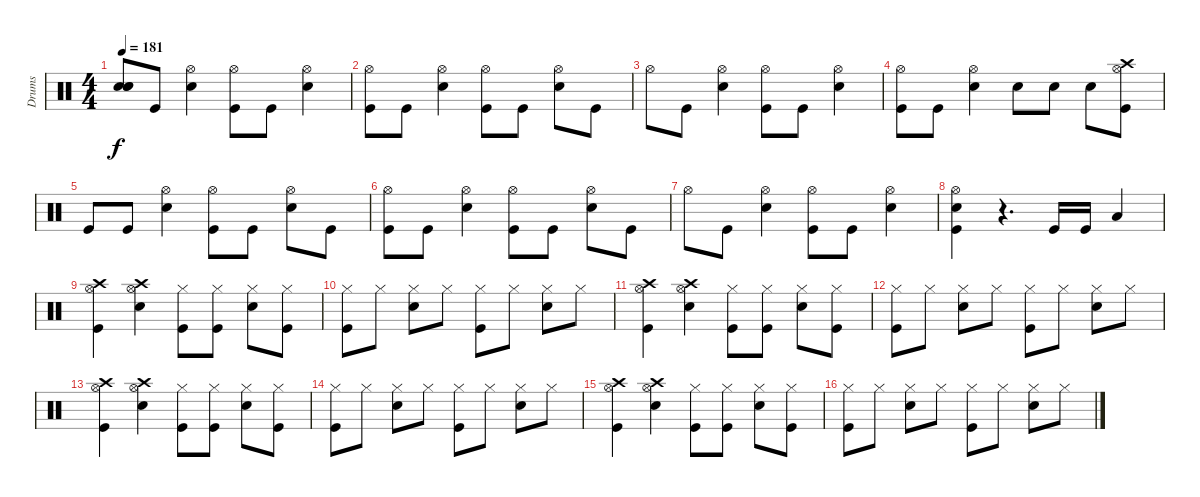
\track ("Drums" "Drums") {instrument percussion}
\staff {score}
\articulation defaults
\ts (4 4)
\tempo 181
\clef neutral
\ks c
("Snare (hit)"{t} "Snare (hit)"{t} "Snare (hit)"{t}).8{dy f} "Kick (hit)".8 ("Hi-Hat (open)" "Snare (hit) 2").4 ("Hi-Hat (open)" "Kick (hit)").8 "Kick (hit)".8 ("Hi-Hat (open)" "Snare (hit) 2").4 |
("Hi-Hat (open)" "Kick (hit)").8 "Kick (hit)".8 ("Hi-Hat (open)" "Snare (hit) 2").4 ("Hi-Hat (open)" "Kick (hit)").8 "Kick (hit)".8 ("Hi-Hat (open)" "Snare (hit) 2").8 "Kick (hit)".8 |
"Hi-Hat (open)".8 "Kick (hit)".8 ("Hi-Hat (open)" "Snare (hit) 2").4 ("Hi-Hat (open)" "Kick (hit)").8 "Kick (hit)".8 ("Hi-Hat (open)" "Snare (hit) 2").4 |
("Hi-Hat (open)" "Kick (hit)").8 "Kick (hit)".8 ("Hi-Hat (open)" "Snare (hit) 2").4 "Snare (hit) 2".8 "Snare (hit) 2".8 "Snare (hit) 2".8 ("Crash high (hit)" "Hi-Hat (open)" "Kick (hit)").8 |
"Kick (hit)".8 "Kick (hit)".8 ("Hi-Hat (open)" "Snare (hit) 2").4 ("Hi-Hat (open)" "Kick (hit)").8 "Kick (hit)".8 ("Hi-Hat (open)" "Snare (hit) 2").8 "Kick (hit)".8 |
("Hi-Hat (open)" "Kick (hit)").8 "Kick (hit)".8 ("Hi-Hat (open)" "Snare (hit) 2").4 ("Hi-Hat (open)" "Kick (hit)").8 "Kick (hit)".8 ("Hi-Hat (open)" "Snare (hit) 2").8 "Kick (hit)".8 |
"Hi-Hat (open)".8 "Kick (hit)".8 ("Hi-Hat (open)" "Snare (hit) 2").4 ("Hi-Hat (open)" "Kick (hit)").8 "Kick (hit)".8 ("Hi-Hat (open)" "Snare (hit) 2").4 |
("Hi-Hat (open)" "Snare (hit) 2" "Kick (hit)").4 r.4{d} "Kick (hit)".16 "Kick (hit)".16 "Low Tom (hit)".4 |
("Crash high (hit)" "Hi-Hat (open)" "Kick (hit)").4 ("Crash high (hit)" "Hi-Hat (open)" "Snare (hit) 2").4 ("Hi-Hat (closed)" "Kick (hit)").8 ("Hi-Hat (closed)" "Kick (hit)").8 ("Hi-Hat (closed)" "Snare (hit) 2").8 ("Hi-Hat (closed)" "Kick (hit)").8 |
("Hi-Hat (closed)" "Kick (hit)").8 "Hi-Hat (closed)".8 ("Hi-Hat (closed)" "Snare (hit) 2").8 "Hi-Hat (closed)".8 ("Hi-Hat (closed)" "Kick (hit)").8 "Hi-Hat (closed)".8 ("Hi-Hat (closed)" "Snare (hit) 2").8 "Hi-Hat (closed)".8 |
("Crash high (hit)" "Hi-Hat (open)" "Kick (hit)").4 ("Crash high (hit)" "Hi-Hat (open)" "Snare (hit) 2").4 ("Hi-Hat (closed)" "Kick (hit)").8 ("Hi-Hat (closed)" "Kick (hit)").8 ("Hi-Hat (closed)" "Snare (hit) 2").8 ("Hi-Hat (closed)" "Kick (hit)").8 |
("Hi-Hat (closed)" "Kick (hit)").8 "Hi-Hat (closed)".8 ("Hi-Hat (closed)" "Snare (hit) 2").8 "Hi-Hat (closed)".8 ("Hi-Hat (closed)" "Kick (hit)").8 "Hi-Hat (closed)".8 ("Hi-Hat (closed)" "Snare (hit) 2").8 "Hi-Hat (closed)".8 |
("Crash high (hit)" "Hi-Hat (open)" "Kick (hit)").4 ("Crash high (hit)" "Hi-Hat (open)" "Snare (hit) 2").4 ("Hi-Hat (closed)" "Kick (hit)").8 ("Hi-Hat (closed)" "Kick (hit)").8 ("Hi-Hat (closed)" "Snare (hit) 2").8 ("Hi-Hat (closed)" "Kick (hit)").8 |
("Hi-Hat (closed)" "Kick (hit)").8 "Hi-Hat (closed)".8 ("Hi-Hat (closed)" "Snare (hit) 2").8 "Hi-Hat (closed)".8 ("Hi-Hat (closed)" "Kick (hit)").8 "Hi-Hat (closed)".8 ("Hi-Hat (closed)" "Snare (hit) 2").8 "Hi-Hat (closed)".8 |
("Crash high (hit)" "Hi-Hat (open)" "Kick (hit)").4 ("Crash high (hit)" "Hi-Hat (open)" "Snare (hit) 2").4 ("Hi-Hat (closed)" "Kick (hit)").8 ("Hi-Hat (closed)" "Kick (hit)").8 ("Hi-Hat (closed)" "Snare (hit) 2").8 ("Hi-Hat (closed)" "Kick (hit)").8 |
("Hi-Hat (closed)" "Kick (hit)").8 "Hi-Hat (closed)".8 ("Hi-Hat (closed)" "Snare (hit) 2").8 "Hi-Hat (closed)".8 ("Hi-Hat (closed)" "Kick (hit)").8 "Hi-Hat (closed)".8 ("Hi-Hat (closed)" "Snare (hit) 2").8 "Hi-Hat (closed)".8
